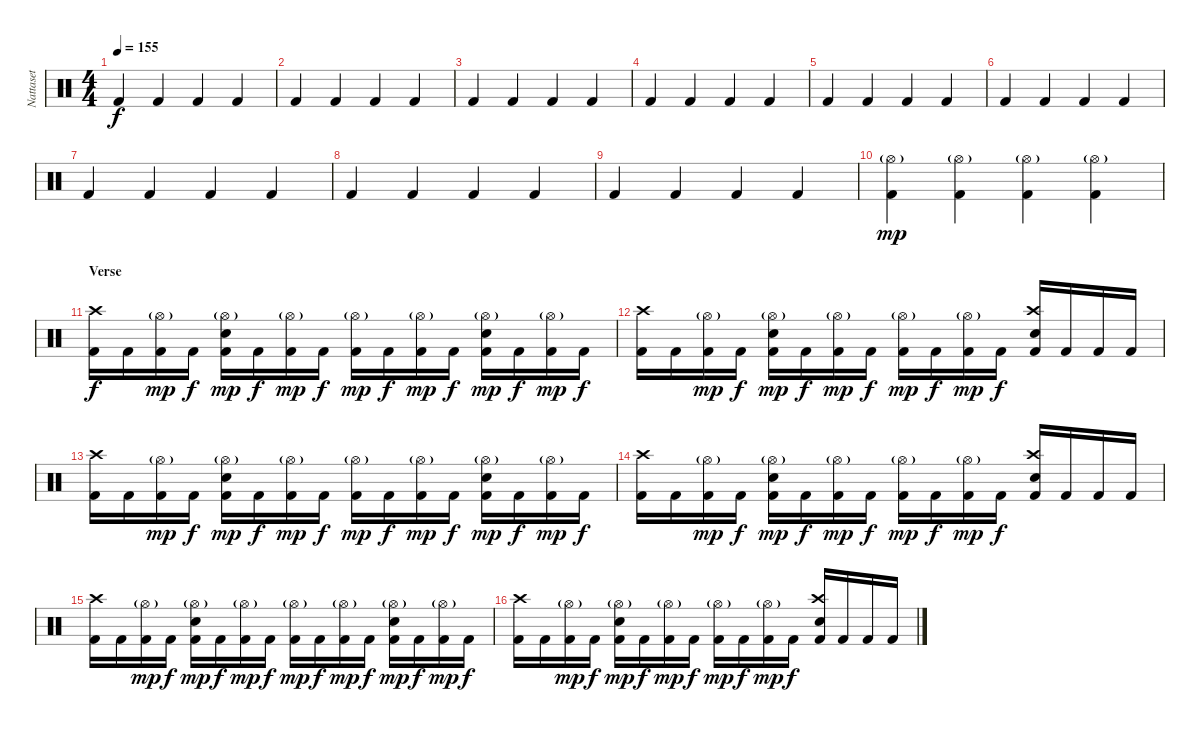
\track ("Nattaset" "Nattaset") {instrument percussion}
\staff {score}
\articulation defaults
\ts (4 4)
\tempo 155
\clef neutral
\ks c "Kick (hit) 2".4{dy f} "Kick (hit) 2".4 "Kick (hit) 2".4 "Kick (hit) 2".4
|
"Kick (hit) 2".4 "Kick (hit) 2".4 "Kick (hit) 2".4 "Kick (hit) 2".4 |
"Kick (hit) 2".4 "Kick (hit) 2".4 "Kick (hit) 2".4 "Kick (hit) 2".4 |
"Kick (hit) 2".4 "Kick (hit) 2".4 "Kick (hit) 2".4 "Kick (hit) 2".4 |
"Kick (hit) 2".4 "Kick (hit) 2".4 "Kick (hit) 2".4 "Kick (hit) 2".4 |
"Kick (hit) 2".4 "Kick (hit) 2".4 "Kick (hit) 2".4 "Kick (hit) 2".4 |
"Kick (hit) 2".4 "Kick (hit) 2".4 "Kick (hit) 2".4 "Kick (hit) 2".4 |
"Kick (hit) 2".4 "Kick (hit) 2".4 "Kick (hit) 2".4 "Kick (hit) 2".4 |
"Kick (hit) 2".4 "Kick (hit) 2".4 "Kick (hit) 2".4 "Kick (hit) 2".4 |
("Hi-Hat (open)"{g} "Kick (hit) 2").4{dy mp} ("Hi-Hat (open)"{g} "Kick (hit) 2").4 ("Hi-Hat (open)"{g} "Kick (hit) 2").4 ("Hi-Hat (open)"{g} "Kick (hit) 2").4 |
\section ("" "Verse")
("Crash high (hit)" "Kick (hit) 2").16{dy f} "Kick (hit) 2".16 ("Hi-Hat (open)"{g} "Kick (hit) 2").16{dy mp} "Kick (hit) 2".16{dy f} ("Hi-Hat (open)"{g} "Electric Snare (hit)" "Kick (hit) 2").16{dy mp} "Kick (hit) 2".16{dy f} ("Hi-Hat (open)"{g} "Kick (hit) 2").16{dy mp} "Kick (hit) 2".16{dy f} ("Hi-Hat (open)"{g} "Kick (hit) 2").16{dy mp} "Kick (hit) 2".16{dy f} ("Hi-Hat (open)"{g} "Kick (hit) 2").16{dy mp} "Kick (hit) 2".16{dy f} ("Hi-Hat (open)"{g} "Electric Snare (hit)" "Kick (hit) 2").16{dy mp} "Kick (hit) 2".16{dy f} ("Hi-Hat (open)"{g} "Kick (hit) 2").16{dy mp} "Kick (hit) 2".16{dy f} |
("Crash high (hit)" "Kick (hit) 2").16 "Kick (hit) 2".16 ("Hi-Hat (open)"{g} "Kick (hit) 2").16{dy mp} "Kick (hit) 2".16{dy f} ("Hi-Hat (open)"{g} "Electric Snare (hit)" "Kick (hit) 2").16{dy mp} "Kick (hit) 2".16{dy f} ("Hi-Hat (open)"{g} "Kick (hit) 2").16{dy mp} "Kick (hit) 2".16{dy f} ("Hi-Hat (open)"{g} "Kick (hit) 2").16{dy mp} "Kick (hit) 2".16{dy f} ("Hi-Hat (open)"{g} "Kick (hit) 2").16{dy mp} "Kick (hit) 2".16{dy f} ("Crash high (hit)" "Electric Snare (hit)" "Kick (hit) 2").16 "Kick (hit) 2".16 "Kick (hit) 2".16 "Kick (hit) 2".16 |
("Crash high (hit)" "Kick (hit) 2").16 "Kick (hit) 2".16 ("Hi-Hat (open)"{g} "Kick (hit) 2").16{dy mp} "Kick (hit) 2".16{dy f} ("Hi-Hat (open)"{g} "Electric Snare (hit)" "Kick (hit) 2").16{dy mp} "Kick (hit) 2".16{dy f} ("Hi-Hat (open)"{g} "Kick (hit) 2").16{dy mp} "Kick (hit) 2".16{dy f} ("Hi-Hat (open)"{g} "Kick (hit) 2").16{dy mp} "Kick (hit) 2".16{dy f} ("Hi-Hat (open)"{g} "Kick (hit) 2").16{dy mp} "Kick (hit) 2".16{dy f} ("Hi-Hat (open)"{g} "Electric Snare (hit)" "Kick (hit) 2").16{dy mp} "Kick (hit) 2".16{dy f} ("Hi-Hat (open)"{g} "Kick (hit) 2").16{dy mp} "Kick (hit) 2".16{dy f} |
("Crash high (hit)" "Kick (hit) 2").16 "Kick (hit) 2".16 ("Hi-Hat (open)"{g} "Kick (hit) 2").16{dy mp} "Kick (hit) 2".16{dy f} ("Hi-Hat (open)"{g} "Electric Snare (hit)" "Kick (hit) 2").16{dy mp} "Kick (hit) 2".16{dy f} ("Hi-Hat (open)"{g} "Kick (hit) 2").16{dy mp} "Kick (hit) 2".16{dy f} ("Hi-Hat (open)"{g} "Kick (hit) 2").16{dy mp} "Kick (hit) 2".16{dy f} ("Hi-Hat (open)"{g} "Kick (hit) 2").16{dy mp} "Kick (hit) 2".16{dy f} ("Crash high (hit)" "Electric Snare (hit)" "Kick (hit) 2").16 "Kick (hit) 2".16 "Kick (hit) 2".16 "Kick (hit) 2".16 |
("Crash high (hit)" "Kick (hit) 2").16 "Kick (hit) 2".16 ("Hi-Hat (open)"{g} "Kick (hit) 2").16{dy mp} "Kick (hit) 2".16{dy f} ("Hi-Hat (open)"{g} "Electric Snare (hit)" "Kick (hit) 2").16{dy mp} "Kick (hit) 2".16{dy f} ("Hi-Hat (open)"{g} "Kick (hit) 2").16{dy mp} "Kick (hit) 2".16{dy f} ("Hi-Hat (open)"{g} "Kick (hit) 2").16{dy mp} "Kick (hit) 2".16{dy f} ("Hi-Hat (open)"{g} "Kick (hit) 2").16{dy mp} "Kick (hit) 2".16{dy f} ("Hi-Hat (open)"{g} "Electric Snare (hit)" "Kick (hit) 2").16{dy mp} "Kick (hit) 2".16{dy f} ("Hi-Hat (open)"{g} "Kick (hit) 2").16{dy mp} "Kick (hit) 2".16{dy f} |
("Crash high (hit)" "Kick (hit) 2").16 "Kick (hit) 2".16 ("Hi-Hat (open)"{g} "Kick (hit) 2").16{dy mp} "Kick (hit) 2".16{dy f} ("Hi-Hat (open)"{g} "Electric Snare (hit)" "Kick (hit) 2").16{dy mp} "Kick (hit) 2".16{dy f} ("Hi-Hat (open)"{g} "Kick (hit) 2").16{dy mp} "Kick (hit) 2".16{dy f} ("Hi-Hat (open)"{g} "Kick (hit) 2").16{dy mp} "Kick (hit) 2".16{dy f} ("Hi-Hat (open)"{g} "Kick (hit) 2").16{dy mp} "Kick (hit) 2".16{dy f} ("Crash high (hit)" "Electric Snare (hit)" "Kick (hit) 2").16 "Kick (hit) 2".16 "Kick (hit) 2".16 "Kick (hit) 2".16
